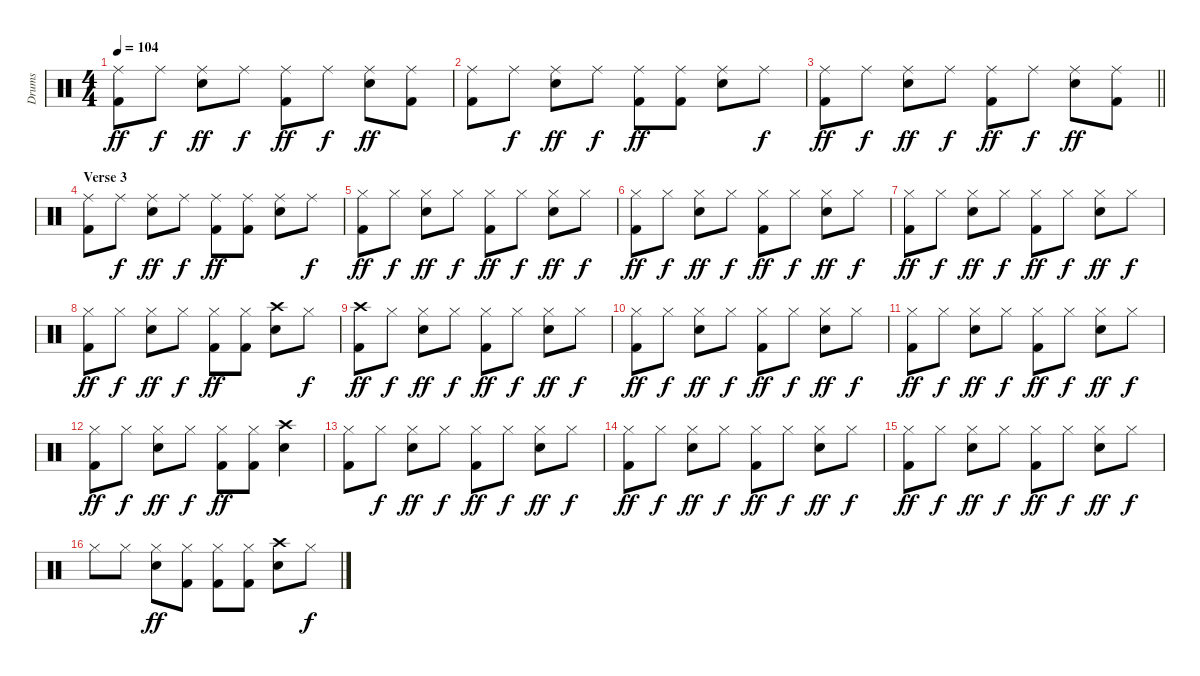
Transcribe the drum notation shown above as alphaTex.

\track ("Drums" "Drums") {instrument percussion}
\staff {score}
\articulation defaults
\ts (4 4)
\tempo 104
\clef neutral
\ks c
("Ride (middle)" "Kick (hit) 2").8{dy ff} "Ride (middle)".8{dy f} ("Ride (middle)" "Snare (hit) 2").8{dy ff} "Ride (middle)".8{dy f} ("Ride (middle)" "Kick (hit) 2").8{dy ff} "Ride (middle)".8{dy f} ("Ride (middle)" "Snare (hit) 2").8{dy ff} ("Ride (middle)" "Kick (hit) 2").8 |
("Ride (middle)" "Kick (hit) 2").8 "Ride (middle)".8{dy f} ("Ride (middle)" "Snare (hit) 2").8{dy ff} "Ride (middle)".8{dy f} ("Ride (middle)" "Kick (hit) 2").8{dy ff} ("Ride (middle)" "Kick (hit) 2").8 ("Ride (middle)" "Snare (hit) 2").8 "Ride (middle)".8{dy f} |
\barLineRight lightlight
("Ride (middle)" "Kick (hit) 2").8{dy ff} "Ride (middle)".8{dy f} ("Ride (middle)" "Snare (hit) 2").8{dy ff} "Ride (middle)".8{dy f} ("Ride (middle)" "Kick (hit) 2").8{dy ff} "Ride (middle)".8{dy f} ("Ride (middle)" "Snare (hit) 2").8{dy ff} ("Ride (middle)" "Kick (hit) 2").8 |
\section ("" "Verse 3")
("Ride (middle)" "Kick (hit) 2").8 "Ride (middle)".8{dy f} ("Ride (middle)" "Snare (hit) 2").8{dy ff} "Ride (middle)".8{dy f} ("Ride (middle)" "Kick (hit) 2").8{dy ff} ("Ride (middle)" "Kick (hit) 2").8 ("Ride (middle)" "Snare (hit) 2").8 "Ride (middle)".8{dy f} |
("Hi-Hat (closed)" "Kick (hit) 2").8{dy ff} "Hi-Hat (closed)".8{dy f} ("Hi-Hat (closed)" "Snare (hit) 2").8{dy ff} "Hi-Hat (closed)".8{dy f} ("Hi-Hat (closed)" "Kick (hit) 2").8{dy ff} "Hi-Hat (closed)".8{dy f} ("Hi-Hat (closed)" "Snare (hit) 2").8{dy ff} "Hi-Hat (closed)".8{dy f} |
("Hi-Hat (closed)" "Kick (hit) 2").8{dy ff} "Hi-Hat (closed)".8{dy f} ("Hi-Hat (closed)" "Snare (hit) 2").8{dy ff} "Hi-Hat (closed)".8{dy f} ("Hi-Hat (closed)" "Kick (hit) 2").8{dy ff} "Hi-Hat (closed)".8{dy f} ("Hi-Hat (closed)" "Snare (hit) 2").8{dy ff} "Hi-Hat (closed)".8{dy f} |
("Hi-Hat (closed)" "Kick (hit) 2").8{dy ff} "Hi-Hat (closed)".8{dy f} ("Hi-Hat (closed)" "Snare (hit) 2").8{dy ff} "Hi-Hat (closed)".8{dy f} ("Hi-Hat (closed)" "Kick (hit) 2").8{dy ff} "Hi-Hat (closed)".8{dy f} ("Hi-Hat (closed)" "Snare (hit) 2").8{dy ff} "Hi-Hat (closed)".8{dy f} |
("Hi-Hat (closed)" "Kick (hit) 2").8{dy ff} "Hi-Hat (closed)".8{dy f} ("Hi-Hat (closed)" "Snare (hit) 2").8{dy ff} "Hi-Hat (closed)".8{dy f} ("Hi-Hat (closed)" "Kick (hit) 2").8{dy ff} ("Hi-Hat (closed)" "Kick (hit) 2").8 ("Crash high (hit)" "Snare (hit) 2").8 "Hi-Hat (closed)".8{dy f} |
("Crash high (hit)" "Kick (hit) 2").8{dy ff} "Hi-Hat (closed)".8{dy f} ("Hi-Hat (closed)" "Snare (hit) 2").8{dy ff} "Hi-Hat (closed)".8{dy f} ("Hi-Hat (closed)" "Kick (hit) 2").8{dy ff} "Hi-Hat (closed)".8{dy f} ("Hi-Hat (closed)" "Snare (hit) 2").8{dy ff} "Hi-Hat (closed)".8{dy f} |
("Hi-Hat (closed)" "Kick (hit) 2").8{dy ff} "Hi-Hat (closed)".8{dy f} ("Hi-Hat (closed)" "Snare (hit) 2").8{dy ff} "Hi-Hat (closed)".8{dy f} ("Hi-Hat (closed)" "Kick (hit) 2").8{dy ff} "Hi-Hat (closed)".8{dy f} ("Hi-Hat (closed)" "Snare (hit) 2").8{dy ff} "Hi-Hat (closed)".8{dy f} |
("Hi-Hat (closed)" "Kick (hit) 2").8{dy ff} "Hi-Hat (closed)".8{dy f} ("Hi-Hat (closed)" "Snare (hit) 2").8{dy ff} "Hi-Hat (closed)".8{dy f} ("Hi-Hat (closed)" "Kick (hit) 2").8{dy ff} "Hi-Hat (closed)".8{dy f} ("Hi-Hat (closed)" "Snare (hit) 2").8{dy ff} "Hi-Hat (closed)".8{dy f} |
("Hi-Hat (closed)" "Kick (hit) 2").8{dy ff} "Hi-Hat (closed)".8{dy f} ("Hi-Hat (closed)" "Snare (hit) 2").8{dy ff} "Hi-Hat (closed)".8{dy f} ("Hi-Hat (closed)" "Kick (hit) 2").8{dy ff} ("Hi-Hat (closed)" "Kick (hit) 2").8 ("Crash high (hit)" "Snare (hit) 2").4 |
("Hi-Hat (closed)" "Kick (hit) 2").8 "Hi-Hat (closed)".8{dy f} ("Hi-Hat (closed)" "Snare (hit) 2").8{dy ff} "Hi-Hat (closed)".8{dy f} ("Hi-Hat (closed)" "Kick (hit) 2").8{dy ff} "Hi-Hat (closed)".8{dy f} ("Hi-Hat (closed)" "Snare (hit) 2").8{dy ff} "Hi-Hat (closed)".8{dy f} |
("Hi-Hat (closed)" "Kick (hit) 2").8{dy ff} "Hi-Hat (closed)".8{dy f} ("Hi-Hat (closed)" "Snare (hit) 2").8{dy ff} "Hi-Hat (closed)".8{dy f} ("Hi-Hat (closed)" "Kick (hit) 2").8{dy ff} "Hi-Hat (closed)".8{dy f} ("Hi-Hat (closed)" "Snare (hit) 2").8{dy ff} "Hi-Hat (closed)".8{dy f} |
("Hi-Hat (closed)" "Kick (hit) 2").8{dy ff} "Hi-Hat (closed)".8{dy f} ("Hi-Hat (closed)" "Snare (hit) 2").8{dy ff} "Hi-Hat (closed)".8{dy f} ("Hi-Hat (closed)" "Kick (hit) 2").8{dy ff} "Hi-Hat (closed)".8{dy f} ("Hi-Hat (closed)" "Snare (hit) 2").8{dy ff} "Hi-Hat (closed)".8{dy f} |
"Hi-Hat (closed)".8 "Hi-Hat (closed)".8 ("Hi-Hat (closed)" "Snare (hit) 2").8{dy ff} ("Hi-Hat (closed)" "Kick (hit) 2").8 ("Hi-Hat (closed)" "Kick (hit) 2").8 ("Hi-Hat (closed)" "Kick (hit) 2").8 ("Crash high (hit)" "Snare (hit) 2").8 "Hi-Hat (closed)".8{dy f}
